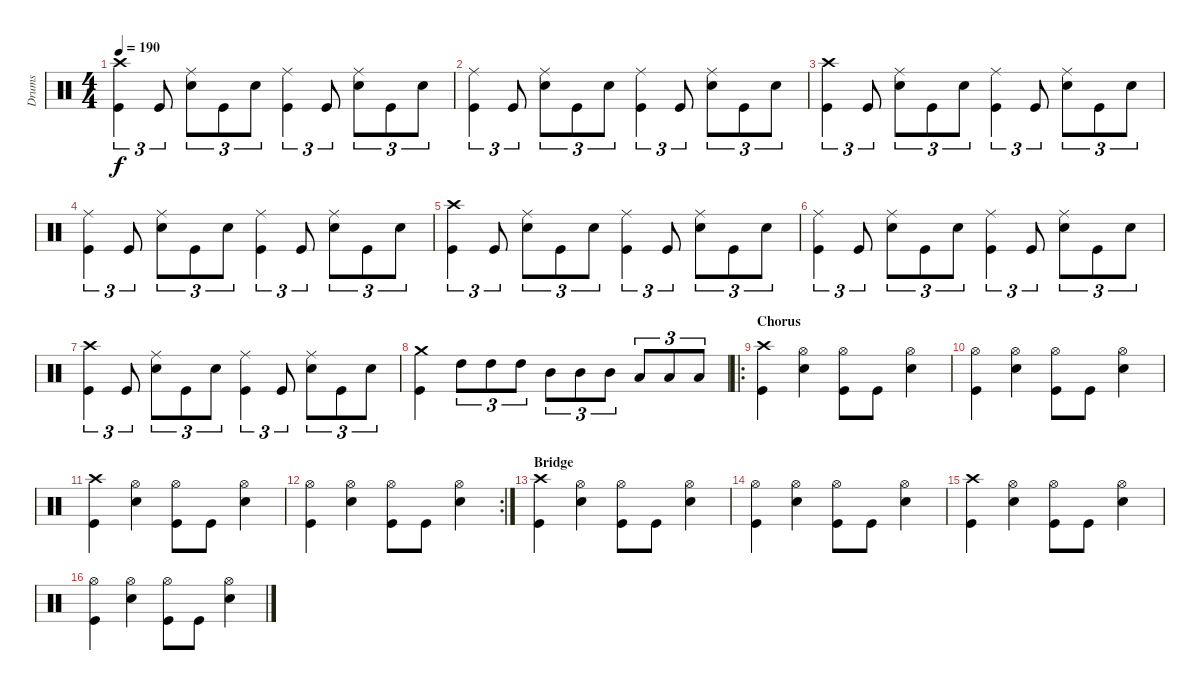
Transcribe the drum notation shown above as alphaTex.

\track ("Drums" "Drums") {instrument percussion}
\staff {score}
\articulation defaults
\ts (4 4)
\tempo 190
\clef neutral
\ks c
("Crash high (hit)" "Kick (hit)").4{tu (3 2) dy f} "Kick (hit)".8{tu (3 2)} ("Ride (middle)" "Snare (hit) 2").8{tu (3 2)} "Kick (hit)".8{tu (3 2)} "Snare (hit) 2".8{tu (3 2)} ("Ride (middle)" "Kick (hit)").4{tu (3 2)} "Kick (hit)".8{tu (3 2)} ("Ride (middle)" "Snare (hit) 2").8{tu (3 2)} "Kick (hit)".8{tu (3 2)} "Snare (hit) 2".8{tu (3 2)} |
("Ride (middle)" "Kick (hit)").4{tu (3 2)} "Kick (hit)".8{tu (3 2)} ("Ride (middle)" "Snare (hit) 2").8{tu (3 2)} "Kick (hit)".8{tu (3 2)} "Snare (hit) 2".8{tu (3 2)} ("Ride (middle)" "Kick (hit)").4{tu (3 2)} "Kick (hit)".8{tu (3 2)} ("Ride (middle)" "Snare (hit) 2").8{tu (3 2)} "Kick (hit)".8{tu (3 2)} "Snare (hit) 2".8{tu (3 2)} |
("Crash high (hit)" "Kick (hit)").4{tu (3 2)} "Kick (hit)".8{tu (3 2)} ("Ride (middle)" "Snare (hit) 2").8{tu (3 2)} "Kick (hit)".8{tu (3 2)} "Snare (hit) 2".8{tu (3 2)} ("Ride (middle)" "Kick (hit)").4{tu (3 2)} "Kick (hit)".8{tu (3 2)} ("Ride (middle)" "Snare (hit) 2").8{tu (3 2)} "Kick (hit)".8{tu (3 2)} "Snare (hit) 2".8{tu (3 2)} |
("Ride (middle)" "Kick (hit)").4{tu (3 2)} "Kick (hit)".8{tu (3 2)} ("Ride (middle)" "Snare (hit) 2").8{tu (3 2)} "Kick (hit)".8{tu (3 2)} "Snare (hit) 2".8{tu (3 2)} ("Ride (middle)" "Kick (hit)").4{tu (3 2)} "Kick (hit)".8{tu (3 2)} ("Ride (middle)" "Snare (hit) 2").8{tu (3 2)} "Kick (hit)".8{tu (3 2)} "Snare (hit) 2".8{tu (3 2)} |
("Crash high (hit)" "Kick (hit)").4{tu (3 2)} "Kick (hit)".8{tu (3 2)} ("Ride (middle)" "Snare (hit) 2").8{tu (3 2)} "Kick (hit)".8{tu (3 2)} "Snare (hit) 2".8{tu (3 2)} ("Ride (middle)" "Kick (hit)").4{tu (3 2)} "Kick (hit)".8{tu (3 2)} ("Ride (middle)" "Snare (hit) 2").8{tu (3 2)} "Kick (hit)".8{tu (3 2)} "Snare (hit) 2".8{tu (3 2)} |
("Ride (middle)" "Kick (hit)").4{tu (3 2)} "Kick (hit)".8{tu (3 2)} ("Ride (middle)" "Snare (hit) 2").8{tu (3 2)} "Kick (hit)".8{tu (3 2)} "Snare (hit) 2".8{tu (3 2)} ("Ride (middle)" "Kick (hit)").4{tu (3 2)} "Kick (hit)".8{tu (3 2)} ("Ride (middle)" "Snare (hit) 2").8{tu (3 2)} "Kick (hit)".8{tu (3 2)} "Snare (hit) 2".8{tu (3 2)} |
("Crash high (hit)" "Kick (hit)").4{tu (3 2)} "Kick (hit)".8{tu (3 2)} ("Ride (middle)" "Snare (hit) 2").8{tu (3 2)} "Kick (hit)".8{tu (3 2)} "Snare (hit) 2".8{tu (3 2)} ("Ride (middle)" "Kick (hit)").4{tu (3 2)} "Kick (hit)".8{tu (3 2)} ("Ride (middle)" "Snare (hit) 2").8{tu (3 2)} "Kick (hit)".8{tu (3 2)} "Snare (hit) 2".8{tu (3 2)} |
("Crash medium (hit)" "Kick (hit)").4 "High Tom (hit)".8{tu (3 2)} "High Tom (hit)".8{tu (3 2)} "High Tom (hit)".8{tu (3 2)} "Mid Tom (hit)".8{tu (3 2)} "Mid Tom (hit)".8{tu (3 2)} "Mid Tom (hit)".8{tu (3 2)} "Low Tom (hit)".8{tu (3 2)} "Low Tom (hit)".8{tu (3 2)} "Low Tom (hit)".8{tu (3 2)} |
\ro
\section ("" "Chorus")
("Crash high (hit)" "Kick (hit)").4 ("Hi-Hat (open)" "Snare (hit) 2").4 ("Hi-Hat (open)" "Kick (hit)").8 "Kick (hit)".8 ("Hi-Hat (open)" "Snare (hit) 2").4 |
("Hi-Hat (open)" "Kick (hit)").4 ("Hi-Hat (open)" "Snare (hit) 2").4 ("Hi-Hat (open)" "Kick (hit)").8 "Kick (hit)".8 ("Hi-Hat (open)" "Snare (hit) 2").4 |
("Crash high (hit)" "Kick (hit)").4 ("Hi-Hat (open)" "Snare (hit) 2").4 ("Hi-Hat (open)" "Kick (hit)").8 "Kick (hit)".8 ("Hi-Hat (open)" "Snare (hit) 2").4 |
\rc 2
("Hi-Hat (open)" "Kick (hit)").4 ("Hi-Hat (open)" "Snare (hit) 2").4 ("Hi-Hat (open)" "Kick (hit)").8 "Kick (hit)".8 ("Hi-Hat (open)" "Snare (hit) 2").4 |
\section ("" "Bridge")
("Crash high (hit)" "Kick (hit)").4 ("Hi-Hat (open)" "Snare (hit) 2").4 ("Hi-Hat (open)" "Kick (hit)").8 "Kick (hit)".8 ("Hi-Hat (open)" "Snare (hit) 2").4 |
("Hi-Hat (open)" "Kick (hit)").4 ("Hi-Hat (open)" "Snare (hit) 2").4 ("Hi-Hat (open)" "Kick (hit)").8 "Kick (hit)".8 ("Hi-Hat (open)" "Snare (hit) 2").4 |
("Crash high (hit)" "Kick (hit)").4 ("Hi-Hat (open)" "Snare (hit) 2").4 ("Hi-Hat (open)" "Kick (hit)").8 "Kick (hit)".8 ("Hi-Hat (open)" "Snare (hit) 2").4 |
("Hi-Hat (open)" "Kick (hit)").4 ("Hi-Hat (open)" "Snare (hit) 2").4 ("Hi-Hat (open)" "Kick (hit)").8 "Kick (hit)".8 ("Hi-Hat (open)" "Snare (hit) 2").4
